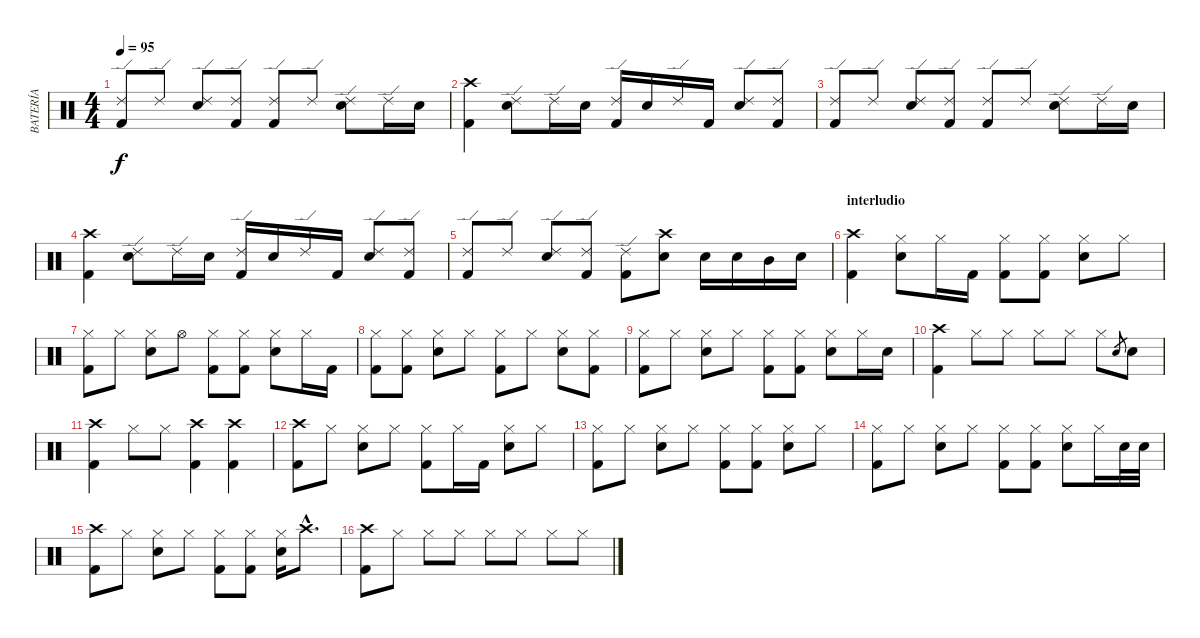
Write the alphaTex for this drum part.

\track ("BATERÍA" "BATERÍA") {instrument percussion}
\staff {score}
\articulation defaults
\ts (4 4)
\tempo 95
\clef neutral
\ks c
("Ride (edge) 2" "Kick (hit) 2").8{dy f} "Ride (edge) 2".8 ("Ride (edge) 2" "Electric Snare (hit)").8 ("Ride (edge) 2" "Kick (hit) 2").8 ("Ride (edge) 2" "Kick (hit) 2").8 "Ride (edge) 2".8 ("Ride (edge) 2" "Electric Snare (hit)").8 "Ride (edge) 2".16 "Electric Snare (hit)".16 |
("Kick (hit) 2" "Crash high (hit)").4 ("Ride (edge) 2" "Electric Snare (hit)").8 "Ride (edge) 2".16 "Electric Snare (hit)".16 ("Ride (edge) 2" "Kick (hit) 2").16 "Electric Snare (hit)".16 "Ride (edge) 2".16 "Kick (hit) 2".16 ("Ride (edge) 2" "Electric Snare (hit)").8 ("Ride (edge) 2" "Kick (hit) 2").8 |
("Ride (edge) 2" "Kick (hit) 2").8 "Ride (edge) 2".8 ("Ride (edge) 2" "Electric Snare (hit)").8 ("Ride (edge) 2" "Kick (hit) 2").8 ("Ride (edge) 2" "Kick (hit) 2").8 "Ride (edge) 2".8 ("Ride (edge) 2" "Electric Snare (hit)").8 "Ride (edge) 2".16 "Electric Snare (hit)".16 |
("Kick (hit) 2" "Crash high (hit)").4 ("Ride (edge) 2" "Electric Snare (hit)").8 "Ride (edge) 2".16 "Electric Snare (hit)".16 ("Ride (edge) 2" "Kick (hit) 2").16 "Electric Snare (hit)".16 "Ride (edge) 2".16 "Kick (hit) 2".16 ("Ride (edge) 2" "Electric Snare (hit)").8 ("Ride (edge) 2" "Kick (hit) 2").8 |
("Ride (edge) 2" "Kick (hit) 2").8 "Ride (edge) 2".8 ("Ride (edge) 2" "Electric Snare (hit)").8 ("Ride (edge) 2" "Kick (hit) 2").8 ("Ride (edge) 2" "Kick (hit) 2").8 ("Crash high (hit)" "Electric Snare (hit)").8 "Electric Snare (hit)".16 "Electric Snare (hit)".16 "Mid Tom (hit)".16 "Electric Snare (hit)".16 |
\section ("" "interludio")
("Crash high (hit)" "Kick (hit) 2").4 ("Hi-Hat (closed)" "Electric Snare (hit)").8 "Hi-Hat (closed)".16 "Kick (hit) 2".16 ("Hi-Hat (closed)" "Kick (hit) 2").8 ("Hi-Hat (closed)" "Kick (hit) 2").8 ("Hi-Hat (closed)" "Electric Snare (hit)").8 "Hi-Hat (closed)".8 |
("Hi-Hat (closed)" "Kick (hit) 2").8 "Hi-Hat (closed)".8 ("Hi-Hat (closed)" "Electric Snare (hit)").8 "Hi-Hat (open)".8 ("Hi-Hat (closed)" "Kick (hit) 2").8 ("Hi-Hat (closed)" "Kick (hit) 2").8 ("Hi-Hat (closed)" "Electric Snare (hit)").8 "Hi-Hat (closed)".16 "Kick (hit) 2".16 |
("Hi-Hat (closed)" "Kick (hit) 2").8 ("Hi-Hat (closed)" "Kick (hit) 2").8 ("Hi-Hat (closed)" "Electric Snare (hit)").8 "Hi-Hat (closed)".8 ("Hi-Hat (closed)" "Kick (hit) 2").8 "Hi-Hat (closed)".8 ("Hi-Hat (closed)" "Electric Snare (hit)").8 ("Hi-Hat (closed)" "Kick (hit) 2").8 |
("Hi-Hat (closed)" "Kick (hit) 2").8 "Hi-Hat (closed)".8 ("Hi-Hat (closed)" "Electric Snare (hit)").8 "Hi-Hat (closed)".8 ("Hi-Hat (closed)" "Kick (hit) 2").8 ("Hi-Hat (closed)" "Kick (hit) 2").8 ("Hi-Hat (closed)" "Electric Snare (hit)").8 "Hi-Hat (closed)".16 "Electric Snare (hit)".16 |
("Crash high (hit)" "Kick (hit) 2").4 "Hi-Hat (closed)".8 "Hi-Hat (closed)".8 "Hi-Hat (closed)".8 "Hi-Hat (closed)".8 "Hi-Hat (closed)".8 "Electric Snare (hit)".8{gr} "Electric Snare (hit)".8 |
("Crash high (hit)" "Kick (hit) 2").4 "Hi-Hat (closed)".8 "Hi-Hat (closed)".8 ("Crash high (hit)" "Kick (hit) 2").4 ("Crash high (hit)" "Kick (hit) 2").4 |
("Crash high (hit)" "Kick (hit) 2").8 "Hi-Hat (closed)".8 ("Hi-Hat (closed)" "Electric Snare (hit)").8 "Hi-Hat (closed)".8 ("Hi-Hat (closed)" "Kick (hit) 2").8 "Hi-Hat (closed)".16 "Kick (hit) 2".16 ("Hi-Hat (closed)" "Electric Snare (hit)").8 "Hi-Hat (closed)".8 |
("Hi-Hat (closed)" "Kick (hit) 2").8 "Hi-Hat (closed)".8 ("Hi-Hat (closed)" "Electric Snare (hit)").8 "Hi-Hat (closed)".8 ("Hi-Hat (closed)" "Kick (hit) 2").8 ("Hi-Hat (closed)" "Kick (hit) 2").8 ("Hi-Hat (closed)" "Electric Snare (hit)").8 "Hi-Hat (closed)".8 |
("Hi-Hat (closed)" "Kick (hit) 2").8 "Hi-Hat (closed)".8 ("Hi-Hat (closed)" "Electric Snare (hit)").8 "Hi-Hat (closed)".8 ("Hi-Hat (closed)" "Kick (hit) 2").8 ("Hi-Hat (closed)" "Kick (hit) 2").8 ("Hi-Hat (closed)" "Electric Snare (hit)").8 "Hi-Hat (closed)".16 "Electric Snare (hit)".32 "Electric Snare (hit)".32 |
("Crash high (hit)" "Kick (hit) 2").8 "Hi-Hat (closed)".8 ("Hi-Hat (closed)" "Electric Snare (hit)").8 "Hi-Hat (closed)".8 ("Hi-Hat (closed)" "Kick (hit) 2").8 ("Hi-Hat (closed)" "Kick (hit) 2").8 ("Hi-Hat (closed)" "Electric Snare (hit)").16 "Crash high (hit)"{hac}.8{d} |
("Crash high (hit)" "Kick (hit) 2").8 "Hi-Hat (closed)".8 "Hi-Hat (closed)".8 "Hi-Hat (closed)".8 "Hi-Hat (closed)".8 "Hi-Hat (closed)".8 "Hi-Hat (closed)".8 "Hi-Hat (closed)".8
